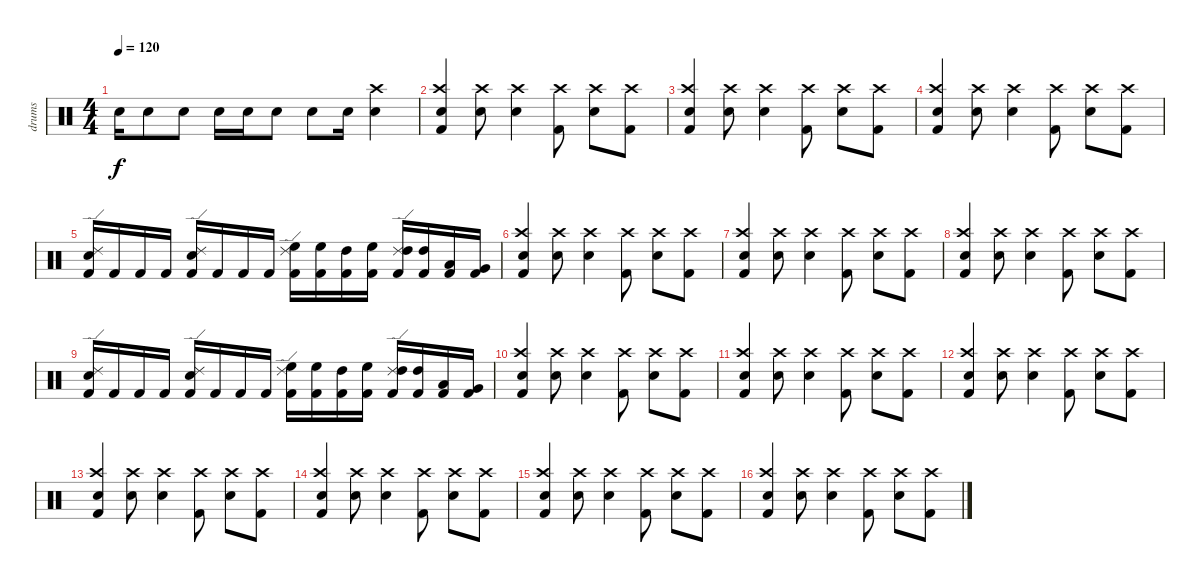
\track ("drums" "drums") {instrument percussion}
\staff {score}
\articulation defaults
\ts (4 4)
\tempo 120
\clef neutral
\ks c "Electric Snare (hit)".16{dy f} "Electric Snare (hit)".8 "Electric Snare (hit)".8 "Electric Snare (hit)".16 "Electric Snare (hit)".16 "Electric Snare (hit)".8 "Electric Snare (hit)".8 "Electric Snare (hit)".16
("Crash high (hit)" "Electric Snare (hit)").4 |
("Crash high (hit)" "Electric Snare (hit)" "Kick (hit) 2").4 ("Crash high (hit)" "Electric Snare (hit)").8 ("Crash high (hit)" "Electric Snare (hit)").4 ("Crash high (hit)" "Kick (hit) 2").8 ("Crash high (hit)" "Electric Snare (hit)").8 ("Crash high (hit)" "Kick (hit) 2").8 |
("Crash high (hit)" "Electric Snare (hit)" "Kick (hit) 2").4 ("Crash high (hit)" "Electric Snare (hit)").8 ("Crash high (hit)" "Electric Snare (hit)").4 ("Crash high (hit)" "Kick (hit) 2").8 ("Crash high (hit)" "Electric Snare (hit)").8 ("Crash high (hit)" "Kick (hit) 2").8 |
("Crash high (hit)" "Electric Snare (hit)" "Kick (hit) 2").4 ("Crash high (hit)" "Electric Snare (hit)").8 ("Crash high (hit)" "Electric Snare (hit)").4 ("Crash high (hit)" "Kick (hit) 2").8 ("Crash high (hit)" "Electric Snare (hit)").8 ("Crash high (hit)" "Kick (hit) 2").8 |
("Ride (edge) 2" "Electric Snare (hit)" "Kick (hit) 2").16 "Kick (hit) 2".16 "Kick (hit) 2".16 "Kick (hit) 2".16 ("Ride (edge) 2" "Electric Snare (hit)" "Kick (hit) 2").16 "Kick (hit) 2".16 "Kick (hit) 2".16 "Kick (hit) 2".16 ("Ride (edge) 2" "High Floor Tom (hit)" "Kick (hit) 2").16 ("High Floor Tom (hit)" "Kick (hit) 2").16 ("High Tom (hit)" "Kick (hit) 2").16 ("High Floor Tom (hit)" "Kick (hit) 2").16 ("Ride (edge) 2" "High Tom (hit)" "Kick (hit) 2").16 ("High Tom (hit)" "Kick (hit) 2").16 ("Low Tom (hit)" "Kick (hit) 2").16 ("Very Low Tom (hit)" "Kick (hit) 2").16 |
("Crash high (hit)" "Electric Snare (hit)" "Kick (hit) 2").4 ("Crash high (hit)" "Electric Snare (hit)").8 ("Crash high (hit)" "Electric Snare (hit)").4 ("Crash high (hit)" "Kick (hit) 2").8 ("Crash high (hit)" "Electric Snare (hit)").8 ("Crash high (hit)" "Kick (hit) 2").8 |
("Crash high (hit)" "Electric Snare (hit)" "Kick (hit) 2").4 ("Crash high (hit)" "Electric Snare (hit)").8 ("Crash high (hit)" "Electric Snare (hit)").4 ("Crash high (hit)" "Kick (hit) 2").8 ("Crash high (hit)" "Electric Snare (hit)").8 ("Crash high (hit)" "Kick (hit) 2").8 |
("Crash high (hit)" "Electric Snare (hit)" "Kick (hit) 2").4 ("Crash high (hit)" "Electric Snare (hit)").8 ("Crash high (hit)" "Electric Snare (hit)").4 ("Crash high (hit)" "Kick (hit) 2").8 ("Crash high (hit)" "Electric Snare (hit)").8 ("Crash high (hit)" "Kick (hit) 2").8 |
("Ride (edge) 2" "Electric Snare (hit)" "Kick (hit) 2").16 "Kick (hit) 2".16 "Kick (hit) 2".16 "Kick (hit) 2".16 ("Ride (edge) 2" "Electric Snare (hit)" "Kick (hit) 2").16 "Kick (hit) 2".16 "Kick (hit) 2".16 "Kick (hit) 2".16 ("Ride (edge) 2" "High Floor Tom (hit)" "Kick (hit) 2").16 ("High Floor Tom (hit)" "Kick (hit) 2").16 ("High Tom (hit)" "Kick (hit) 2").16 ("High Floor Tom (hit)" "Kick (hit) 2").16 ("Ride (edge) 2" "High Tom (hit)" "Kick (hit) 2").16 ("High Tom (hit)" "Kick (hit) 2").16 ("Low Tom (hit)" "Kick (hit) 2").16 ("Very Low Tom (hit)" "Kick (hit) 2").16 |
("Crash high (hit)" "Electric Snare (hit)" "Kick (hit) 2").4 ("Crash high (hit)" "Electric Snare (hit)").8 ("Crash high (hit)" "Electric Snare (hit)").4 ("Crash high (hit)" "Kick (hit) 2").8 ("Crash high (hit)" "Electric Snare (hit)").8 ("Crash high (hit)" "Kick (hit) 2").8 |
("Crash high (hit)" "Electric Snare (hit)" "Kick (hit) 2").4 ("Crash high (hit)" "Electric Snare (hit)").8 ("Crash high (hit)" "Electric Snare (hit)").4 ("Crash high (hit)" "Kick (hit) 2").8 ("Crash high (hit)" "Electric Snare (hit)").8 ("Crash high (hit)" "Kick (hit) 2").8 |
("Crash high (hit)" "Electric Snare (hit)" "Kick (hit) 2").4 ("Crash high (hit)" "Electric Snare (hit)").8 ("Crash high (hit)" "Electric Snare (hit)").4 ("Crash high (hit)" "Kick (hit) 2").8 ("Crash high (hit)" "Electric Snare (hit)").8 ("Crash high (hit)" "Kick (hit) 2").8 |
("Crash high (hit)" "Electric Snare (hit)" "Kick (hit) 2").4 ("Crash high (hit)" "Electric Snare (hit)").8 ("Crash high (hit)" "Electric Snare (hit)").4 ("Crash high (hit)" "Kick (hit) 2").8 ("Crash high (hit)" "Electric Snare (hit)").8 ("Crash high (hit)" "Kick (hit) 2").8 |
("Crash high (hit)" "Electric Snare (hit)" "Kick (hit) 2").4 ("Crash high (hit)" "Electric Snare (hit)").8 ("Crash high (hit)" "Electric Snare (hit)").4 ("Crash high (hit)" "Kick (hit) 2").8 ("Crash high (hit)" "Electric Snare (hit)").8 ("Crash high (hit)" "Kick (hit) 2").8 |
("Crash high (hit)" "Electric Snare (hit)" "Kick (hit) 2").4 ("Crash high (hit)" "Electric Snare (hit)").8 ("Crash high (hit)" "Electric Snare (hit)").4 ("Crash high (hit)" "Kick (hit) 2").8 ("Crash high (hit)" "Electric Snare (hit)").8 ("Crash high (hit)" "Kick (hit) 2").8 |
("Crash high (hit)" "Electric Snare (hit)" "Kick (hit) 2").4 ("Crash high (hit)" "Electric Snare (hit)").8 ("Crash high (hit)" "Electric Snare (hit)").4 ("Crash high (hit)" "Kick (hit) 2").8 ("Crash high (hit)" "Electric Snare (hit)").8 ("Crash high (hit)" "Kick (hit) 2").8
